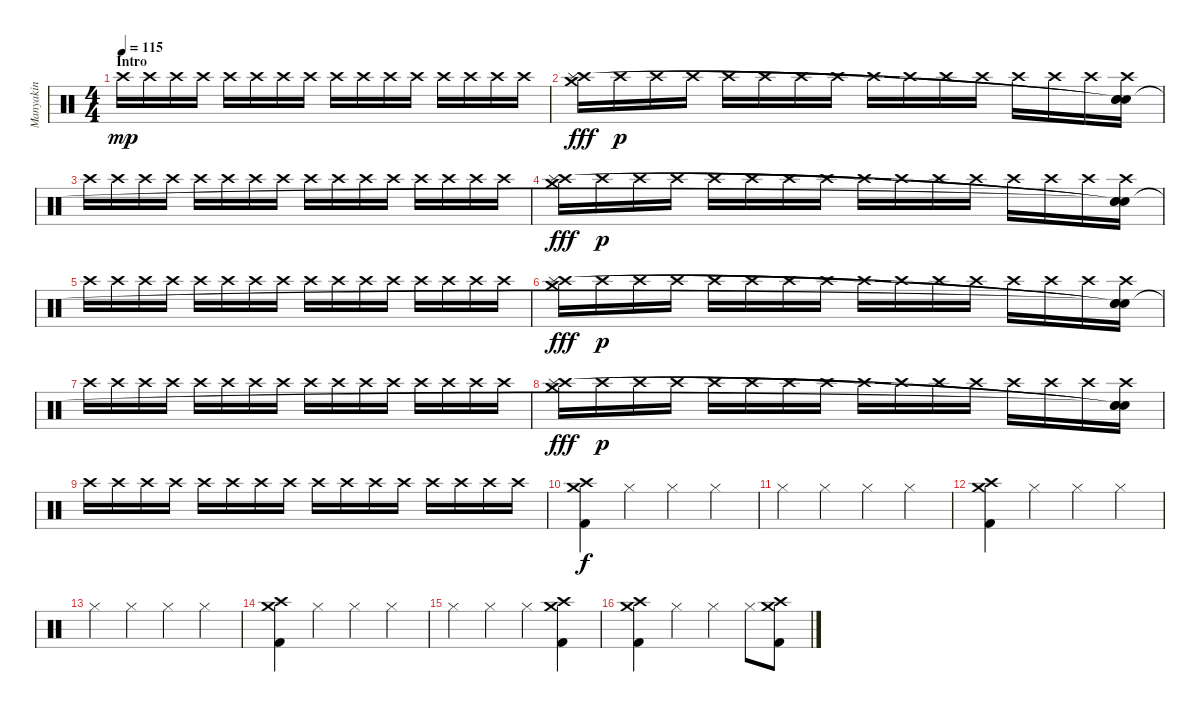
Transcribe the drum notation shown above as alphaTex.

\track ("Manyakin" "Manyakin") {instrument percussion}
\staff {score}
\articulation defaults
\ts (4 4)
\section ("" "Intro ")
\tempo 115
\clef neutral
\ks c "Crash high (hit)".16{dy mp volume 4} "Crash high (hit)".16{volume 9} "Crash high (hit)".16 "Crash high (hit)".16 "Crash high (hit)".16 "Crash high (hit)".16 "Crash high (hit)".16 "Crash high (hit)".16 "Crash high (hit)".16 "Crash high (hit)".16 "Crash high (hit)".16 "Crash high (hit)".16 "Crash high (hit)".16 "Crash high (hit)".16 "Crash high (hit)".16 "Crash high (hit)".16
|
("Crash medium (hit)" "Crash high (hit)" "Splash (hit)").16{dy fff volume 10} "Crash high (hit)".16{dy p} "Crash high (hit)".16 "Crash high (hit)".16 "Crash high (hit)".16 "Crash high (hit)".16 "Crash high (hit)".16 "Crash high (hit)".16 "Crash high (hit)".16 "Crash high (hit)".16 "Crash high (hit)".16 "Crash high (hit)".16 "Crash high (hit)".16 "Crash high (hit)".16 "Crash high (hit)".16 ("Crash high (hit)" "Snare (hit)"{t} "Snare (hit)"{t} "Snare (hit)").16 |
"Crash high (hit)".16 "Crash high (hit)".16 "Crash high (hit)".16 "Crash high (hit)".16 "Crash high (hit)".16 "Crash high (hit)".16 "Crash high (hit)".16 "Crash high (hit)".16 "Crash high (hit)".16 "Crash high (hit)".16 "Crash high (hit)".16 "Crash high (hit)".16 "Crash high (hit)".16 "Crash high (hit)".16 "Crash high (hit)".16 "Crash high (hit)".16 |
("Crash medium (hit)" "Crash high (hit)" "Splash (hit)").16{dy fff} "Crash high (hit)".16{dy p} "Crash high (hit)".16 "Crash high (hit)".16 "Crash high (hit)".16 "Crash high (hit)".16 "Crash high (hit)".16 "Crash high (hit)".16 "Crash high (hit)".16 "Crash high (hit)".16 "Crash high (hit)".16 "Crash high (hit)".16 "Crash high (hit)".16 "Crash high (hit)".16 "Crash high (hit)".16 ("Crash high (hit)" "Snare (hit)"{t} "Snare (hit)"{t} "Snare (hit)"{t}).16 |
"Crash high (hit)".16 "Crash high (hit)".16 "Crash high (hit)".16 "Crash high (hit)".16 "Crash high (hit)".16 "Crash high (hit)".16 "Crash high (hit)".16 "Crash high (hit)".16 "Crash high (hit)".16 "Crash high (hit)".16 "Crash high (hit)".16 "Crash high (hit)".16 "Crash high (hit)".16 "Crash high (hit)".16 "Crash high (hit)".16 "Crash high (hit)".16 |
("Crash medium (hit)" "Crash high (hit)" "Splash (hit)").16{dy fff} "Crash high (hit)".16{dy p} "Crash high (hit)".16 "Crash high (hit)".16 "Crash high (hit)".16 "Crash high (hit)".16 "Crash high (hit)".16 "Crash high (hit)".16 "Crash high (hit)".16 "Crash high (hit)".16 "Crash high (hit)".16 "Crash high (hit)".16 "Crash high (hit)".16 "Crash high (hit)".16 "Crash high (hit)".16 ("Crash high (hit)" "Snare (hit)"{t} "Snare (hit)"{t} "Snare (hit)"{t}).16 |
"Crash high (hit)".16 "Crash high (hit)".16 "Crash high (hit)".16 "Crash high (hit)".16 "Crash high (hit)".16 "Crash high (hit)".16 "Crash high (hit)".16 "Crash high (hit)".16 "Crash high (hit)".16 "Crash high (hit)".16 "Crash high (hit)".16 "Crash high (hit)".16 "Crash high (hit)".16 "Crash high (hit)".16 "Crash high (hit)".16 "Crash high (hit)".16 |
("Crash medium (hit)" "Crash high (hit)" "Splash (hit)").16{dy fff} "Crash high (hit)".16{dy p} "Crash high (hit)".16 "Crash high (hit)".16 "Crash high (hit)".16 "Crash high (hit)".16 "Crash high (hit)".16 "Crash high (hit)".16 "Crash high (hit)".16 "Crash high (hit)".16 "Crash high (hit)".16 "Crash high (hit)".16 "Crash high (hit)".16 "Crash high (hit)".16 "Crash high (hit)".16 ("Crash high (hit)" "Snare (hit)"{t} "Snare (hit)"{t} "Snare (hit)"{t}).16 |
"Crash high (hit)".16 "Crash high (hit)".16 "Crash high (hit)".16 "Crash high (hit)".16 "Crash high (hit)".16 "Crash high (hit)".16 "Crash high (hit)".16 "Crash high (hit)".16 "Crash high (hit)".16 "Crash high (hit)".16 "Crash high (hit)".16 "Crash high (hit)".16 "Crash high (hit)".16 "Crash high (hit)".16 "Crash high (hit)".16 "Crash high (hit)".16 |
("Kick (hit) 2" "Crash high (hit)" "Crash medium (hit)").4{dy f volume 16} "Hi-Hat (closed)".4 "Hi-Hat (closed)".4 "Hi-Hat (closed)".4 |
"Hi-Hat (closed)".4 "Hi-Hat (closed)".4 "Hi-Hat (closed)".4 "Hi-Hat (closed)".4 |
("Kick (hit) 2" "Crash high (hit)" "Crash medium (hit)").4 "Hi-Hat (closed)".4 "Hi-Hat (closed)".4 "Hi-Hat (closed)".4 |
"Hi-Hat (closed)".4 "Hi-Hat (closed)".4 "Hi-Hat (closed)".4 "Hi-Hat (closed)".4 |
("Crash high (hit)" "Crash medium (hit)" "Kick (hit) 2").4 "Hi-Hat (closed)".4 "Hi-Hat (closed)".4 "Hi-Hat (closed)".4 |
"Hi-Hat (closed)".4 "Hi-Hat (closed)".4 "Hi-Hat (closed)".4 ("Kick (hit) 2" "Crash high (hit)" "Crash medium (hit)").4 |
("Kick (hit) 2" "Crash high (hit)" "Crash medium (hit)").4 "Hi-Hat (closed)".4 "Hi-Hat (closed)".4 "Hi-Hat (closed)".8 ("Kick (hit) 2" "Crash high (hit)" "Crash medium (hit)").8
